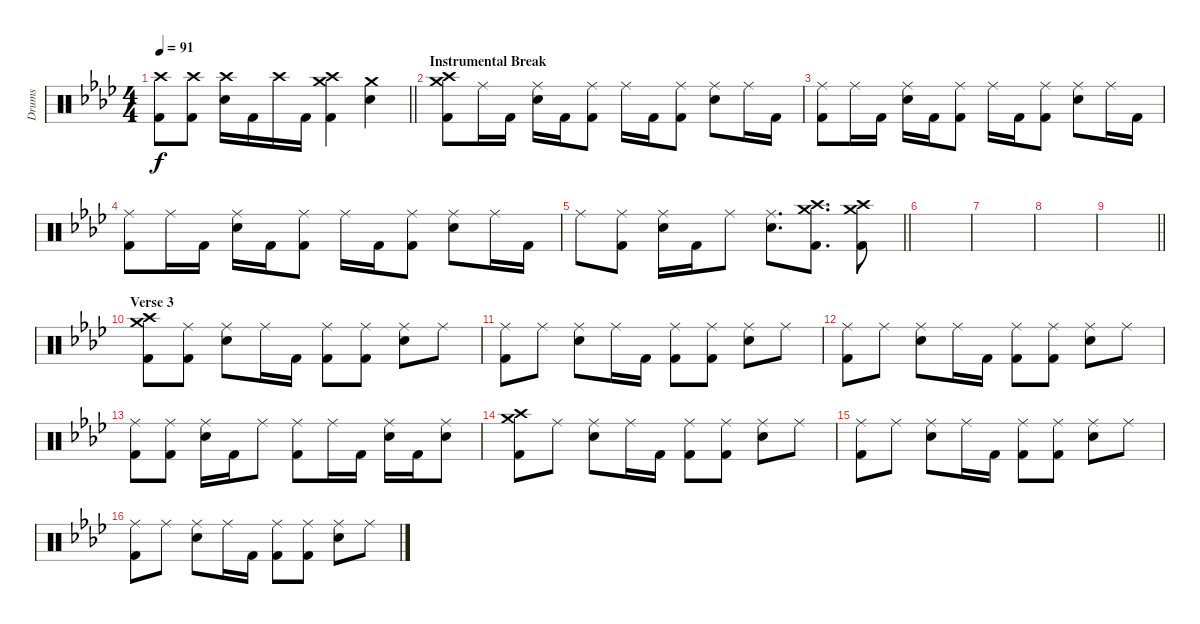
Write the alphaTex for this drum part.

\track ("Drums" "Drums") {instrument percussion}
\staff {score}
\articulation defaults
\ts (4 4)
\tempo 91
\clef neutral
\barLineRight lightlight
\ks fminor
("Crash high (hit)" "Kick (hit) 2").8{dy f} ("Crash high (hit)" "Kick (hit) 2").8 ("Crash high (hit)" "Electric Snare (hit)").16 "Kick (hit) 2".16 "Crash high (hit)".16 "Kick (hit) 2".16 ("Crash medium (hit)" "Crash high (hit)" "Kick (hit) 2").4 ("Crash medium (hit)" "Electric Snare (hit)").4 |
\section ("" "Instrumental Break")
("Crash medium (hit)" "Crash high (hit)" "Kick (hit) 2").8 "Ride (middle)".16 "Kick (hit) 2".16 ("Ride (middle)" "Electric Snare (hit)").16 "Kick (hit) 2".16 ("Ride (middle)" "Kick (hit) 2").8 "Ride (middle)".16 "Kick (hit) 2".16 ("Ride (middle)" "Kick (hit) 2").8 ("Ride (middle)" "Electric Snare (hit)").8 "Ride (middle)".16 "Kick (hit) 2".16 |
("Ride (middle)" "Kick (hit) 2").8 "Ride (middle)".16 "Kick (hit) 2".16 ("Ride (middle)" "Electric Snare (hit)").16 "Kick (hit) 2".16 ("Ride (middle)" "Kick (hit) 2").8 "Ride (middle)".16 "Kick (hit) 2".16 ("Ride (middle)" "Kick (hit) 2").8 ("Ride (middle)" "Electric Snare (hit)").8 "Ride (middle)".16 "Kick (hit) 2".16 |
("Ride (middle)" "Kick (hit) 2").8 "Ride (middle)".16 "Kick (hit) 2".16 ("Ride (middle)" "Electric Snare (hit)").16 "Kick (hit) 2".16 ("Ride (middle)" "Kick (hit) 2").8 "Ride (middle)".16 "Kick (hit) 2".16 ("Ride (middle)" "Kick (hit) 2").8 ("Ride (middle)" "Electric Snare (hit)").8 "Ride (middle)".16 "Kick (hit) 2".16 |
\barLineRight lightlight "Ride (middle)".8
("Ride (middle)" "Kick (hit) 2").8 ("Ride (middle)" "Electric Snare (hit)").16 "Kick (hit) 2".16 "Ride (middle)".8 ("Ride (middle)" "Electric Snare (hit)").8{d} ("Crash medium (hit)" "Crash high (hit)" "Kick (hit) 2").8{d} ("Crash medium (hit)" "Crash high (hit)" "Kick (hit) 2").8 |
\section ("" " ")
|
|
|
\barLineRight lightlight
|
\section ("" "Verse 3")
("Crash medium (hit)" "Crash high (hit)" "Kick (hit) 2").8 ("Ride (middle)" "Kick (hit) 2").8 ("Ride (middle)" "Electric Snare (hit)").8 "Ride (middle)".16 "Kick (hit) 2".16 ("Ride (middle)" "Kick (hit) 2").8 ("Ride (middle)" "Kick (hit) 2").8 ("Ride (middle)" "Electric Snare (hit)").8 "Ride (middle)".8 |
("Ride (middle)" "Kick (hit) 2").8 "Ride (middle)".8 ("Ride (middle)" "Electric Snare (hit)").8 "Ride (middle)".16 "Kick (hit) 2".16 ("Ride (middle)" "Kick (hit) 2").8 ("Ride (middle)" "Kick (hit) 2").8 ("Ride (middle)" "Electric Snare (hit)").8 "Ride (middle)".8 |
("Ride (middle)" "Kick (hit) 2").8 "Ride (middle)".8 ("Ride (middle)" "Electric Snare (hit)").8 "Ride (middle)".16 "Kick (hit) 2".16 ("Ride (middle)" "Kick (hit) 2").8 ("Ride (middle)" "Kick (hit) 2").8 ("Ride (middle)" "Electric Snare (hit)").8 "Ride (middle)".8 |
("Ride (middle)" "Kick (hit) 2").8 ("Ride (middle)" "Kick (hit) 2").8 ("Ride (middle)" "Electric Snare (hit)").16 "Kick (hit) 2".16 "Ride (middle)".8 ("Ride (middle)" "Kick (hit) 2").8 "Ride (middle)".16 "Kick (hit) 2".16 ("Ride (middle)" "Electric Snare (hit)").16 "Kick (hit) 2".16 ("Ride (middle)" "Electric Snare (hit)").8 |
("Crash medium (hit)" "Crash high (hit)" "Kick (hit) 2").8 "Ride (middle)".8 ("Ride (middle)" "Electric Snare (hit)").8 "Ride (middle)".16 "Kick (hit) 2".16 ("Ride (middle)" "Kick (hit) 2").8 ("Ride (middle)" "Kick (hit) 2").8 ("Ride (middle)" "Electric Snare (hit)").8 "Ride (middle)".8 |
("Ride (middle)" "Kick (hit) 2").8 "Ride (middle)".8 ("Ride (middle)" "Electric Snare (hit)").8 "Ride (middle)".16 "Kick (hit) 2".16 ("Ride (middle)" "Kick (hit) 2").8 ("Ride (middle)" "Kick (hit) 2").8 ("Ride (middle)" "Electric Snare (hit)").8 "Ride (middle)".8 |
("Ride (middle)" "Kick (hit) 2").8 "Ride (middle)".8 ("Ride (middle)" "Electric Snare (hit)").8 "Ride (middle)".16 "Kick (hit) 2".16 ("Ride (middle)" "Kick (hit) 2").8 ("Ride (middle)" "Kick (hit) 2").8 ("Ride (middle)" "Electric Snare (hit)").8 "Ride (middle)".8
